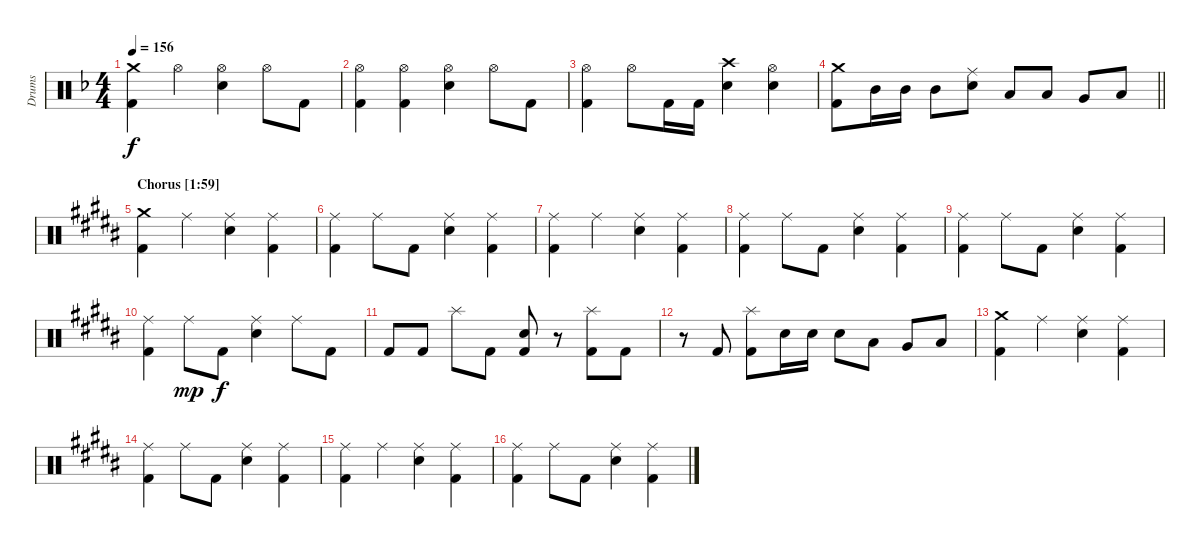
\track ("Drums" "Drums") {instrument percussion}
\staff {score}
\articulation defaults
\ts (4 4)
\tempo 156
\clef neutral
\ks dminor
("Crash medium (hit)" "Kick (hit) 2").4{dy f} "Hi-Hat (open)".4 ("Hi-Hat (open)" "Snare (hit) 2").4 "Hi-Hat (open)".8 "Kick (hit) 2".8 |
("Hi-Hat (open)" "Kick (hit) 2").4 ("Hi-Hat (open)" "Kick (hit) 2").4 ("Hi-Hat (open)" "Snare (hit) 2").4 "Hi-Hat (open)".8 "Kick (hit) 2".8 |
("Hi-Hat (open)" "Kick (hit) 2").4 "Hi-Hat (open)".8 "Kick (hit) 2".16 "Kick (hit) 2".16 ("Crash high (hit)" "Snare (hit) 2").4 ("Hi-Hat (open)" "Snare (hit) 2").4 |
\barLineRight lightlight
("Crash medium (hit)" "Kick (hit) 2").8 "Mid Tom (hit)".16 "Mid Tom (hit)".16 "Mid Tom (hit)".8 ("Ride (middle)" "Snare (hit) 2").8 "Low Tom (hit)".8 "Low Tom (hit)".8 "Very Low Tom (hit)".8 "Low Floor Tom (hit)".8 |
\section ("" "Chorus [1:59]")
\ks g#minor
("Crash medium (hit)" "Kick (hit) 2").4 "Ride (middle)".4 ("Ride (middle)" "Snare (hit) 2").4 ("Ride (middle)" "Kick (hit) 2").4 |
("Ride (middle)" "Kick (hit) 2").4 "Ride (middle)".8 "Kick (hit) 2".8 ("Ride (middle)" "Snare (hit) 2").4 ("Ride (middle)" "Kick (hit) 2").4 |
("Ride (middle)" "Kick (hit) 2").4 "Ride (middle)".4 ("Ride (middle)" "Snare (hit) 2").4 ("Ride (middle)" "Kick (hit) 2").4 |
("Ride (middle)" "Kick (hit) 2").4 "Ride (middle)".8 "Kick (hit) 2".8 ("Ride (middle)" "Snare (hit) 2").4 ("Ride (middle)" "Kick (hit) 2").4 |
("Ride (middle)" "Kick (hit) 2").4 "Ride (middle)".8 "Kick (hit) 2".8 ("Ride (middle)" "Snare (hit) 2").4 ("Ride (middle)" "Kick (hit) 2").4 |
("Ride (middle)" "Kick (hit) 2").4 "Ride (middle)".8{dy mp} "Kick (hit) 2".8{dy f} ("Ride (middle)" "Snare (hit) 2").4 "Ride (middle)".8 "Kick (hit) 2".8 |
"Kick (hit) 2".8 "Kick (hit) 2".8 "Splash (hit)".8 "Kick (hit) 2".8 ("Snare (hit) 2" "Kick (hit) 2").8 r.8 ("Splash (hit)" "Kick (hit) 2").8 "Kick (hit) 2".8 |
r.8 "Kick (hit) 2".8 ("Splash (hit)" "Kick (hit) 2").8 "Snare (hit) 2".16 "Snare (hit) 2".16 "Snare (hit) 2".8 "Low Tom (hit)".8 "Very Low Tom (hit)".8 "Low Floor Tom (hit)".8 |
("Crash medium (hit)" "Kick (hit) 2").4 "Ride (middle)".4 ("Ride (middle)" "Snare (hit) 2").4 ("Ride (middle)" "Kick (hit) 2").4 |
("Ride (middle)" "Kick (hit) 2").4 "Ride (middle)".8 "Kick (hit) 2".8 ("Ride (middle)" "Snare (hit) 2").4 ("Ride (middle)" "Kick (hit) 2").4 |
("Ride (middle)" "Kick (hit) 2").4 "Ride (middle)".4 ("Ride (middle)" "Snare (hit) 2").4 ("Ride (middle)" "Kick (hit) 2").4 |
("Ride (middle)" "Kick (hit) 2").4 "Ride (middle)".8 "Kick (hit) 2".8 ("Ride (middle)" "Snare (hit) 2").4 ("Ride (middle)" "Kick (hit) 2").4
